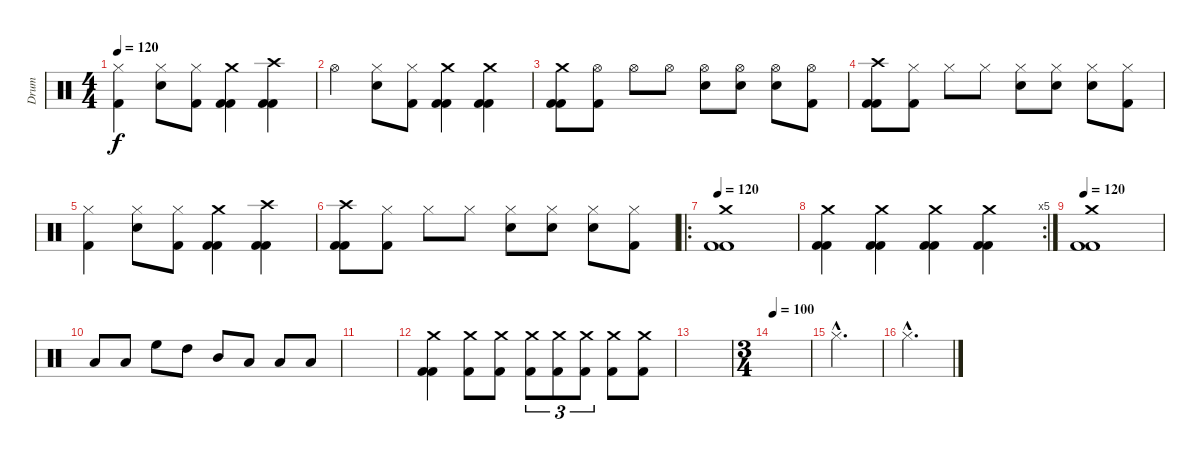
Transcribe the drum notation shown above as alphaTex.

\track ("Drum" "Drum") {instrument percussion}
\staff {score}
\articulation defaults
\ts (4 4)
\tempo 120
\clef neutral
\ks c
("Hi-Hat (closed)" "Kick (hit) 2").4{dy f} ("Hi-Hat (closed)" "Snare (hit) 2").8 ("Hi-Hat (closed)" "Kick (hit) 2").8 ("Crash medium (hit)" "Kick (hit) 2" "Kick (hit) 2").4 ("Crash high (hit)" "Kick (hit) 2" "Kick (hit) 2").4 |
"Hi-Hat (open)".4 ("Hi-Hat (closed)" "Snare (hit) 2").8 ("Hi-Hat (closed)" "Kick (hit) 2").8 ("Crash medium (hit)" "Kick (hit) 2" "Kick (hit) 2").4 ("Crash medium (hit)" "Kick (hit) 2" "Kick (hit) 2").4 |
("Crash medium (hit)" "Kick (hit) 2" "Kick (hit) 2").8 ("Hi-Hat (open)" "Kick (hit) 2").8 "Hi-Hat (open)".8 "Hi-Hat (open)".8 ("Hi-Hat (open)" "Snare (hit) 2").8 ("Hi-Hat (open)" "Snare (hit) 2").8 ("Hi-Hat (open)" "Snare (hit) 2").8 ("Hi-Hat (open)" "Kick (hit) 2").8 |
("Crash high (hit)" "Kick (hit) 2" "Kick (hit) 2").8 ("Hi-Hat (closed)" "Kick (hit) 2").8 "Hi-Hat (closed)".8 "Hi-Hat (closed)".8 ("Hi-Hat (closed)" "Snare (hit) 2").8 ("Hi-Hat (closed)" "Snare (hit) 2").8 ("Hi-Hat (closed)" "Snare (hit) 2").8 ("Hi-Hat (closed)" "Kick (hit) 2").8 |
("Hi-Hat (closed)" "Kick (hit) 2").4 ("Hi-Hat (closed)" "Snare (hit) 2").8 ("Hi-Hat (closed)" "Kick (hit) 2").8 ("Crash medium (hit)" "Kick (hit) 2" "Kick (hit) 2").4 ("Crash high (hit)" "Kick (hit) 2" "Kick (hit) 2").4 |
("Crash high (hit)" "Kick (hit) 2" "Kick (hit) 2").8 ("Hi-Hat (closed)" "Kick (hit) 2").8 "Hi-Hat (closed)".8 "Hi-Hat (closed)".8 ("Hi-Hat (closed)" "Snare (hit) 2").8 ("Hi-Hat (closed)" "Snare (hit) 2").8 ("Hi-Hat (closed)" "Snare (hit) 2").8 ("Hi-Hat (closed)" "Kick (hit) 2").8 |
\ro
\tempo 120
("Crash medium (hit)" "Kick (hit) 2" "Kick (hit) 2").1 |
\rc 5
("Crash medium (hit)" "Kick (hit) 2" "Kick (hit) 2").4 ("Crash medium (hit)" "Kick (hit) 2" "Kick (hit) 2").4 ("Crash medium (hit)" "Kick (hit) 2" "Kick (hit) 2").4 ("Crash medium (hit)" "Kick (hit) 2" "Kick (hit) 2").4 |
\tempo 120
("Crash medium (hit)" "Kick (hit) 2" "Kick (hit) 2").1 |
"Low Floor Tom (hit)".8 "Low Floor Tom (hit)".8 "High Floor Tom (hit)".8 "High Tom (hit)".8 "Mid Tom (hit)".8 "Low Tom (hit)".8 "Low Floor Tom (hit)".8 "Low Floor Tom (hit)".8 |
|
("Crash medium (hit)" "Kick (hit) 2" "Kick (hit) 2").4 ("Crash medium (hit)" "Kick (hit) 2").8 ("Crash medium (hit)" "Kick (hit) 2").8 ("Crash medium (hit)" "Kick (hit) 2").8{tu (3 2)} ("Crash medium (hit)" "Kick (hit) 2").8{tu (3 2)} ("Crash medium (hit)" "Kick (hit) 2").8{tu (3 2)} ("Crash medium (hit)" "Kick (hit) 2").8 ("Crash medium (hit)" "Kick (hit) 2").8 |
|
\ts (3 4)
\tempo 100
|
"Hi-Hat (closed)"{hac}.2{d} |
"Hi-Hat (closed)"{hac}.2{d}
